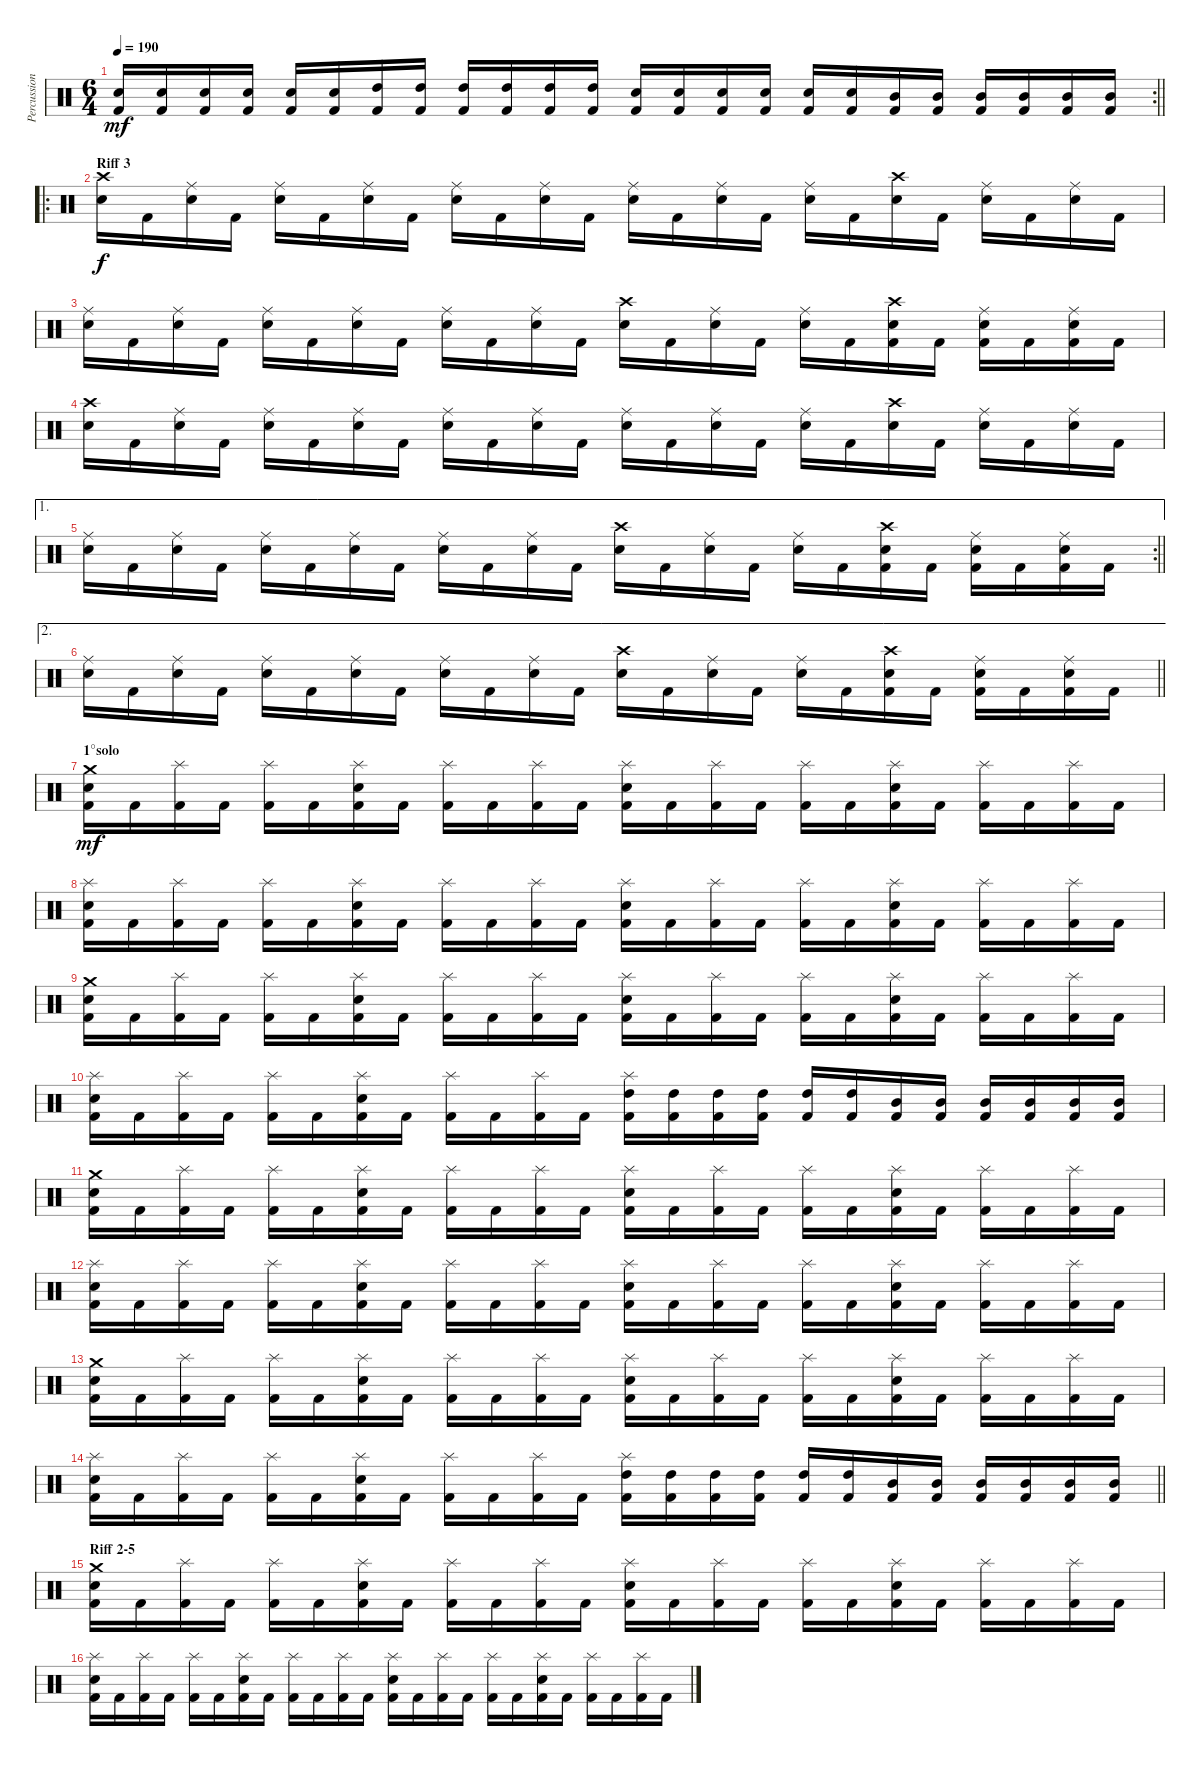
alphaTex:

\track ("Percussions" "Percussion") {instrument percussion}
\staff {score}
\articulation defaults
\rc 2
\ts (6 4)
\tempo 190
\clef neutral
\barLineRight lightlight
\ks c
("Electric Snare (hit)" "Kick (hit) 2").16{dy mf} ("Electric Snare (hit)" "Kick (hit) 2").16 ("Electric Snare (hit)" "Kick (hit) 2").16 ("Electric Snare (hit)" "Kick (hit) 2").16 ("Electric Snare (hit)" "Kick (hit) 2").16 ("Electric Snare (hit)" "Kick (hit) 2").16 ("High Tom (hit)" "Kick (hit) 2").16 ("High Tom (hit)" "Kick (hit) 2").16 ("High Tom (hit)" "Kick (hit) 2").16 ("High Tom (hit)" "Kick (hit) 2").16 ("High Tom (hit)" "Kick (hit) 2").16 ("High Tom (hit)" "Kick (hit) 2").16 ("Electric Snare (hit)" "Kick (hit) 2").16 ("Electric Snare (hit)" "Kick (hit) 2").16 ("Electric Snare (hit)" "Kick (hit) 2").16 ("Electric Snare (hit)" "Kick (hit) 2").16 ("Electric Snare (hit)" "Kick (hit) 2").16 ("Electric Snare (hit)" "Kick (hit) 2").16 ("Mid Tom (hit)" "Kick (hit) 2").16 ("Mid Tom (hit)" "Kick (hit) 2").16 ("Mid Tom (hit)" "Kick (hit) 2").16 ("Mid Tom (hit)" "Kick (hit) 2").16 ("Mid Tom (hit)" "Kick (hit) 2").16 ("Mid Tom (hit)" "Kick (hit) 2").16 |
\ro
\section ("" "Riff 3")
("Crash high (hit)" "Electric Snare (hit)").16{dy f} "Kick (hit) 2".16 ("Ride (middle)" "Electric Snare (hit)").16 "Kick (hit) 2".16 ("Ride (middle)" "Electric Snare (hit)").16 "Kick (hit) 2".16 ("Ride (middle)" "Electric Snare (hit)").16 "Kick (hit) 2".16 ("Ride (middle)" "Electric Snare (hit)").16 "Kick (hit) 2".16 ("Ride (middle)" "Electric Snare (hit)").16 "Kick (hit) 2".16 ("Ride (middle)" "Electric Snare (hit)").16 "Kick (hit) 2".16 ("Ride (middle)" "Electric Snare (hit)").16 "Kick (hit) 2".16 ("Ride (middle)" "Electric Snare (hit)").16 "Kick (hit) 2".16 ("Crash high (hit)" "Electric Snare (hit)").16 "Kick (hit) 2".16 ("Ride (middle)" "Electric Snare (hit)").16 "Kick (hit) 2".16 ("Ride (middle)" "Electric Snare (hit)").16 "Kick (hit) 2".16 |
("Ride (middle)" "Electric Snare (hit)").16 "Kick (hit) 2".16 ("Ride (middle)" "Electric Snare (hit)").16 "Kick (hit) 2".16 ("Ride (middle)" "Electric Snare (hit)").16 "Kick (hit) 2".16 ("Ride (middle)" "Electric Snare (hit)").16 "Kick (hit) 2".16 ("Ride (middle)" "Electric Snare (hit)").16 "Kick (hit) 2".16 ("Ride (middle)" "Electric Snare (hit)").16 "Kick (hit) 2".16 ("Crash high (hit)" "Electric Snare (hit)").16 "Kick (hit) 2".16 ("Ride (middle)" "Electric Snare (hit)").16 "Kick (hit) 2".16 ("Ride (middle)" "Electric Snare (hit)").16 "Kick (hit) 2".16 ("Crash high (hit)" "Electric Snare (hit)" "Kick (hit) 2").16 "Kick (hit) 2".16 ("Ride (middle)" "Electric Snare (hit)" "Kick (hit) 2").16 "Kick (hit) 2".16 ("Ride (middle)" "Electric Snare (hit)" "Kick (hit) 2").16 "Kick (hit) 2".16 |
("Crash high (hit)" "Electric Snare (hit)").16 "Kick (hit) 2".16 ("Ride (middle)" "Electric Snare (hit)").16 "Kick (hit) 2".16 ("Ride (middle)" "Electric Snare (hit)").16 "Kick (hit) 2".16 ("Ride (middle)" "Electric Snare (hit)").16 "Kick (hit) 2".16 ("Ride (middle)" "Electric Snare (hit)").16 "Kick (hit) 2".16 ("Ride (middle)" "Electric Snare (hit)").16 "Kick (hit) 2".16 ("Ride (middle)" "Electric Snare (hit)").16 "Kick (hit) 2".16 ("Ride (middle)" "Electric Snare (hit)").16 "Kick (hit) 2".16 ("Ride (middle)" "Electric Snare (hit)").16 "Kick (hit) 2".16 ("Crash high (hit)" "Electric Snare (hit)").16 "Kick (hit) 2".16 ("Ride (middle)" "Electric Snare (hit)").16 "Kick (hit) 2".16 ("Ride (middle)" "Electric Snare (hit)").16 "Kick (hit) 2".16 |
\ae 1
\rc 2
\barLineRight lightlight
("Ride (middle)" "Electric Snare (hit)").16 "Kick (hit) 2".16 ("Ride (middle)" "Electric Snare (hit)").16 "Kick (hit) 2".16 ("Ride (middle)" "Electric Snare (hit)").16 "Kick (hit) 2".16 ("Ride (middle)" "Electric Snare (hit)").16 "Kick (hit) 2".16 ("Ride (middle)" "Electric Snare (hit)").16 "Kick (hit) 2".16 ("Ride (middle)" "Electric Snare (hit)").16 "Kick (hit) 2".16 ("Crash high (hit)" "Electric Snare (hit)").16 "Kick (hit) 2".16 ("Ride (middle)" "Electric Snare (hit)").16 "Kick (hit) 2".16 ("Ride (middle)" "Electric Snare (hit)").16 "Kick (hit) 2".16 ("Crash high (hit)" "Electric Snare (hit)" "Kick (hit) 2").16 "Kick (hit) 2".16 ("Ride (middle)" "Electric Snare (hit)" "Kick (hit) 2").16 "Kick (hit) 2".16 ("Ride (middle)" "Electric Snare (hit)" "Kick (hit) 2").16 "Kick (hit) 2".16 |
\ae 2
\barLineRight lightlight
("Ride (middle)" "Electric Snare (hit)").16 "Kick (hit) 2".16 ("Ride (middle)" "Electric Snare (hit)").16 "Kick (hit) 2".16 ("Ride (middle)" "Electric Snare (hit)").16 "Kick (hit) 2".16 ("Ride (middle)" "Electric Snare (hit)").16 "Kick (hit) 2".16 ("Ride (middle)" "Electric Snare (hit)").16 "Kick (hit) 2".16 ("Ride (middle)" "Electric Snare (hit)").16 "Kick (hit) 2".16 ("Crash high (hit)" "Electric Snare (hit)").16 "Kick (hit) 2".16 ("Ride (middle)" "Electric Snare (hit)").16 "Kick (hit) 2".16 ("Ride (middle)" "Electric Snare (hit)").16 "Kick (hit) 2".16 ("Crash high (hit)" "Electric Snare (hit)" "Kick (hit) 2").16 "Kick (hit) 2".16 ("Ride (middle)" "Electric Snare (hit)" "Kick (hit) 2").16 "Kick (hit) 2".16 ("Ride (middle)" "Electric Snare (hit)" "Kick (hit) 2").16 "Kick (hit) 2".16 |
\section ("" "1°solo")
("Crash medium (hit)" "Electric Snare (hit)" "Kick (hit) 2").16{dy mf} "Kick (hit) 2".16 ("Splash (hit)" "Kick (hit) 2").16 "Kick (hit) 2".16 ("Splash (hit)" "Kick (hit) 2").16 "Kick (hit) 2".16 ("Splash (hit)" "Electric Snare (hit)" "Kick (hit) 2").16 "Kick (hit) 2".16 ("Splash (hit)" "Kick (hit) 2").16 "Kick (hit) 2".16 ("Splash (hit)" "Kick (hit) 2").16 "Kick (hit) 2".16 ("Splash (hit)" "Electric Snare (hit)" "Kick (hit) 2").16 "Kick (hit) 2".16 ("Splash (hit)" "Kick (hit) 2").16 "Kick (hit) 2".16 ("Splash (hit)" "Kick (hit) 2").16 "Kick (hit) 2".16 ("Splash (hit)" "Electric Snare (hit)" "Kick (hit) 2").16 "Kick (hit) 2".16 ("Splash (hit)" "Kick (hit) 2").16 "Kick (hit) 2".16 ("Splash (hit)" "Kick (hit) 2").16 "Kick (hit) 2".16 |
("Splash (hit)" "Electric Snare (hit)" "Kick (hit) 2").16 "Kick (hit) 2".16 ("Splash (hit)" "Kick (hit) 2").16 "Kick (hit) 2".16 ("Splash (hit)" "Kick (hit) 2").16 "Kick (hit) 2".16 ("Splash (hit)" "Electric Snare (hit)" "Kick (hit) 2").16 "Kick (hit) 2".16 ("Splash (hit)" "Kick (hit) 2").16 "Kick (hit) 2".16 ("Splash (hit)" "Kick (hit) 2").16 "Kick (hit) 2".16 ("Splash (hit)" "Electric Snare (hit)" "Kick (hit) 2").16 "Kick (hit) 2".16 ("Splash (hit)" "Kick (hit) 2").16 "Kick (hit) 2".16 ("Splash (hit)" "Kick (hit) 2").16 "Kick (hit) 2".16 ("Splash (hit)" "Electric Snare (hit)" "Kick (hit) 2").16 "Kick (hit) 2".16 ("Splash (hit)" "Kick (hit) 2").16 "Kick (hit) 2".16 ("Splash (hit)" "Kick (hit) 2").16 "Kick (hit) 2".16 |
("Crash medium (hit)" "Electric Snare (hit)" "Kick (hit) 2").16 "Kick (hit) 2".16 ("Splash (hit)" "Kick (hit) 2").16 "Kick (hit) 2".16 ("Splash (hit)" "Kick (hit) 2").16 "Kick (hit) 2".16 ("Splash (hit)" "Electric Snare (hit)" "Kick (hit) 2").16 "Kick (hit) 2".16 ("Splash (hit)" "Kick (hit) 2").16 "Kick (hit) 2".16 ("Splash (hit)" "Kick (hit) 2").16 "Kick (hit) 2".16 ("Splash (hit)" "Electric Snare (hit)" "Kick (hit) 2").16 "Kick (hit) 2".16 ("Splash (hit)" "Kick (hit) 2").16 "Kick (hit) 2".16 ("Splash (hit)" "Kick (hit) 2").16 "Kick (hit) 2".16 ("Splash (hit)" "Electric Snare (hit)" "Kick (hit) 2").16 "Kick (hit) 2".16 ("Splash (hit)" "Kick (hit) 2").16 "Kick (hit) 2".16 ("Splash (hit)" "Kick (hit) 2").16 "Kick (hit) 2".16 |
("Splash (hit)" "Electric Snare (hit)" "Kick (hit) 2").16 "Kick (hit) 2".16 ("Splash (hit)" "Kick (hit) 2").16 "Kick (hit) 2".16 ("Splash (hit)" "Kick (hit) 2").16 "Kick (hit) 2".16 ("Splash (hit)" "Electric Snare (hit)" "Kick (hit) 2").16 "Kick (hit) 2".16 ("Splash (hit)" "Kick (hit) 2").16 "Kick (hit) 2".16 ("Splash (hit)" "Kick (hit) 2").16 "Kick (hit) 2".16 ("Splash (hit)" "High Tom (hit)" "Kick (hit) 2").16 ("High Tom (hit)" "Kick (hit) 2").16 ("High Tom (hit)" "Kick (hit) 2").16 ("High Tom (hit)" "Kick (hit) 2").16 ("High Tom (hit)" "Kick (hit) 2").16 ("High Tom (hit)" "Kick (hit) 2").16 ("Mid Tom (hit)" "Kick (hit) 2").16 ("Mid Tom (hit)" "Kick (hit) 2").16 ("Mid Tom (hit)" "Kick (hit) 2").16 ("Mid Tom (hit)" "Kick (hit) 2").16 ("Mid Tom (hit)" "Kick (hit) 2").16 ("Mid Tom (hit)" "Kick (hit) 2").16 |
("Crash medium (hit)" "Electric Snare (hit)" "Kick (hit) 2").16 "Kick (hit) 2".16 ("Splash (hit)" "Kick (hit) 2").16 "Kick (hit) 2".16 ("Splash (hit)" "Kick (hit) 2").16 "Kick (hit) 2".16 ("Splash (hit)" "Electric Snare (hit)" "Kick (hit) 2").16 "Kick (hit) 2".16 ("Splash (hit)" "Kick (hit) 2").16 "Kick (hit) 2".16 ("Splash (hit)" "Kick (hit) 2").16 "Kick (hit) 2".16 ("Splash (hit)" "Electric Snare (hit)" "Kick (hit) 2").16 "Kick (hit) 2".16 ("Splash (hit)" "Kick (hit) 2").16 "Kick (hit) 2".16 ("Splash (hit)" "Kick (hit) 2").16 "Kick (hit) 2".16 ("Splash (hit)" "Electric Snare (hit)" "Kick (hit) 2").16 "Kick (hit) 2".16 ("Splash (hit)" "Kick (hit) 2").16 "Kick (hit) 2".16 ("Splash (hit)" "Kick (hit) 2").16 "Kick (hit) 2".16 |
("Splash (hit)" "Electric Snare (hit)" "Kick (hit) 2").16 "Kick (hit) 2".16 ("Splash (hit)" "Kick (hit) 2").16 "Kick (hit) 2".16 ("Splash (hit)" "Kick (hit) 2").16 "Kick (hit) 2".16 ("Splash (hit)" "Electric Snare (hit)" "Kick (hit) 2").16 "Kick (hit) 2".16 ("Splash (hit)" "Kick (hit) 2").16 "Kick (hit) 2".16 ("Splash (hit)" "Kick (hit) 2").16 "Kick (hit) 2".16 ("Splash (hit)" "Electric Snare (hit)" "Kick (hit) 2").16 "Kick (hit) 2".16 ("Splash (hit)" "Kick (hit) 2").16 "Kick (hit) 2".16 ("Splash (hit)" "Kick (hit) 2").16 "Kick (hit) 2".16 ("Splash (hit)" "Electric Snare (hit)" "Kick (hit) 2").16 "Kick (hit) 2".16 ("Splash (hit)" "Kick (hit) 2").16 "Kick (hit) 2".16 ("Splash (hit)" "Kick (hit) 2").16 "Kick (hit) 2".16 |
("Crash medium (hit)" "Electric Snare (hit)" "Kick (hit) 2").16 "Kick (hit) 2".16 ("Splash (hit)" "Kick (hit) 2").16 "Kick (hit) 2".16 ("Splash (hit)" "Kick (hit) 2").16 "Kick (hit) 2".16 ("Splash (hit)" "Electric Snare (hit)" "Kick (hit) 2").16 "Kick (hit) 2".16 ("Splash (hit)" "Kick (hit) 2").16 "Kick (hit) 2".16 ("Splash (hit)" "Kick (hit) 2").16 "Kick (hit) 2".16 ("Splash (hit)" "Electric Snare (hit)" "Kick (hit) 2").16 "Kick (hit) 2".16 ("Splash (hit)" "Kick (hit) 2").16 "Kick (hit) 2".16 ("Splash (hit)" "Kick (hit) 2").16 "Kick (hit) 2".16 ("Splash (hit)" "Electric Snare (hit)" "Kick (hit) 2").16 "Kick (hit) 2".16 ("Splash (hit)" "Kick (hit) 2").16 "Kick (hit) 2".16 ("Splash (hit)" "Kick (hit) 2").16 "Kick (hit) 2".16 |
\barLineRight lightlight
("Splash (hit)" "Electric Snare (hit)" "Kick (hit) 2").16 "Kick (hit) 2".16 ("Splash (hit)" "Kick (hit) 2").16 "Kick (hit) 2".16 ("Splash (hit)" "Kick (hit) 2").16 "Kick (hit) 2".16 ("Splash (hit)" "Electric Snare (hit)" "Kick (hit) 2").16 "Kick (hit) 2".16 ("Splash (hit)" "Kick (hit) 2").16 "Kick (hit) 2".16 ("Splash (hit)" "Kick (hit) 2").16 "Kick (hit) 2".16 ("Splash (hit)" "High Tom (hit)" "Kick (hit) 2").16 ("High Tom (hit)" "Kick (hit) 2").16 ("High Tom (hit)" "Kick (hit) 2").16 ("High Tom (hit)" "Kick (hit) 2").16 ("High Tom (hit)" "Kick (hit) 2").16 ("High Tom (hit)" "Kick (hit) 2").16 ("Mid Tom (hit)" "Kick (hit) 2").16 ("Mid Tom (hit)" "Kick (hit) 2").16 ("Mid Tom (hit)" "Kick (hit) 2").16 ("Mid Tom (hit)" "Kick (hit) 2").16 ("Mid Tom (hit)" "Kick (hit) 2").16 ("Mid Tom (hit)" "Kick (hit) 2").16 |
\section ("" "Riff 2-5")
("Crash medium (hit)" "Electric Snare (hit)" "Kick (hit) 2").16 "Kick (hit) 2".16 ("Splash (hit)" "Kick (hit) 2").16 "Kick (hit) 2".16 ("Splash (hit)" "Kick (hit) 2").16 "Kick (hit) 2".16 ("Splash (hit)" "Electric Snare (hit)" "Kick (hit) 2").16 "Kick (hit) 2".16 ("Splash (hit)" "Kick (hit) 2").16 "Kick (hit) 2".16 ("Splash (hit)" "Kick (hit) 2").16 "Kick (hit) 2".16 ("Splash (hit)" "Electric Snare (hit)" "Kick (hit) 2").16 "Kick (hit) 2".16 ("Splash (hit)" "Kick (hit) 2").16 "Kick (hit) 2".16 ("Splash (hit)" "Kick (hit) 2").16 "Kick (hit) 2".16 ("Splash (hit)" "Electric Snare (hit)" "Kick (hit) 2").16 "Kick (hit) 2".16 ("Splash (hit)" "Kick (hit) 2").16 "Kick (hit) 2".16 ("Splash (hit)" "Kick (hit) 2").16 "Kick (hit) 2".16 |
("Splash (hit)" "Electric Snare (hit)" "Kick (hit) 2").16 "Kick (hit) 2".16 ("Splash (hit)" "Kick (hit) 2").16 "Kick (hit) 2".16 ("Splash (hit)" "Kick (hit) 2").16 "Kick (hit) 2".16 ("Splash (hit)" "Electric Snare (hit)" "Kick (hit) 2").16 "Kick (hit) 2".16 ("Splash (hit)" "Kick (hit) 2").16 "Kick (hit) 2".16 ("Splash (hit)" "Kick (hit) 2").16 "Kick (hit) 2".16 ("Splash (hit)" "Electric Snare (hit)" "Kick (hit) 2").16 "Kick (hit) 2".16 ("Splash (hit)" "Kick (hit) 2").16 "Kick (hit) 2".16 ("Splash (hit)" "Kick (hit) 2").16 "Kick (hit) 2".16 ("Splash (hit)" "Electric Snare (hit)" "Kick (hit) 2").16 "Kick (hit) 2".16 ("Splash (hit)" "Kick (hit) 2").16 "Kick (hit) 2".16 ("Splash (hit)" "Kick (hit) 2").16 "Kick (hit) 2".16
